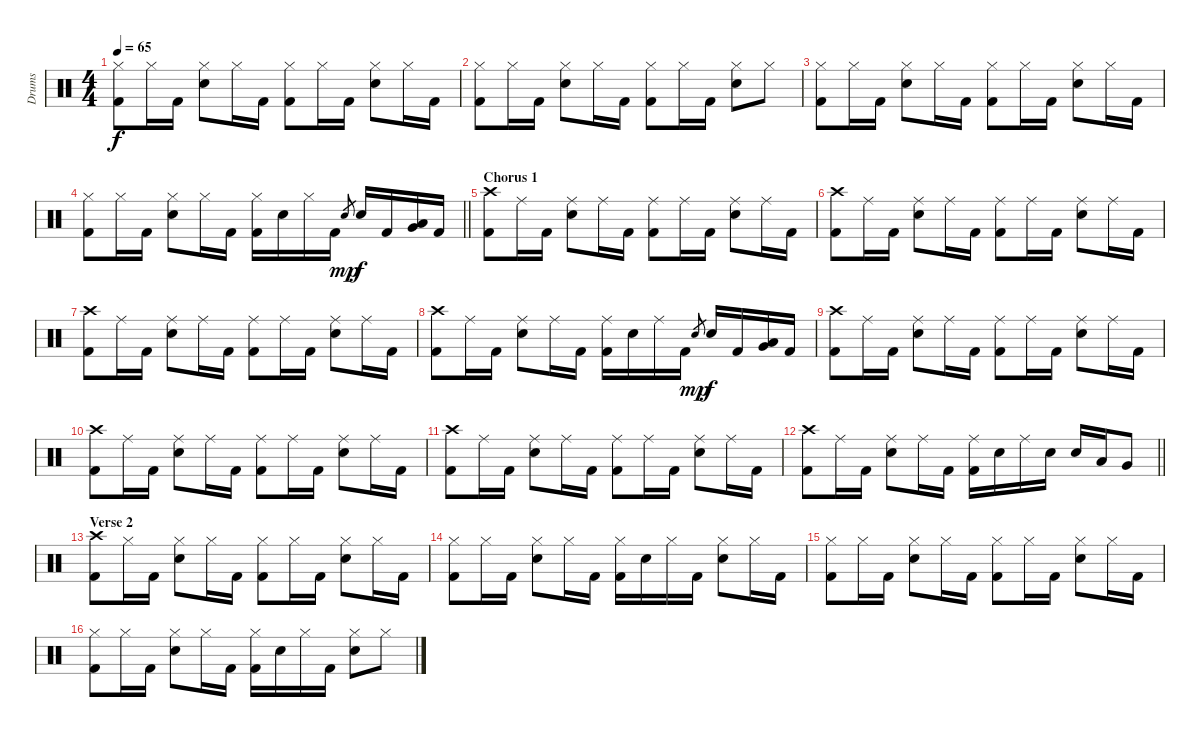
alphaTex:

\track ("Drums" "Drums") {instrument percussion}
\staff {score}
\articulation defaults
\ts (4 4)
\tempo 65
\clef neutral
\ks c
("Hi-Hat (closed)" "Kick (hit) 2").8{dy f} "Hi-Hat (closed)".16 "Kick (hit) 2".16 ("Hi-Hat (closed)" "Electric Snare (hit)").8 "Hi-Hat (closed)".16 "Kick (hit) 2".16 ("Hi-Hat (closed)" "Kick (hit) 2").8 "Hi-Hat (closed)".16 "Kick (hit) 2".16 ("Hi-Hat (closed)" "Electric Snare (hit)").8 "Hi-Hat (closed)".16 "Kick (hit) 2".16 |
("Hi-Hat (closed)" "Kick (hit) 2").8 "Hi-Hat (closed)".16 "Kick (hit) 2".16 ("Hi-Hat (closed)" "Electric Snare (hit)").8 "Hi-Hat (closed)".16 "Kick (hit) 2".16 ("Hi-Hat (closed)" "Kick (hit) 2").8 "Hi-Hat (closed)".16 "Kick (hit) 2".16 ("Hi-Hat (closed)" "Electric Snare (hit)").8 "Hi-Hat (closed)".8 |
("Hi-Hat (closed)" "Kick (hit) 2").8 "Hi-Hat (closed)".16 "Kick (hit) 2".16 ("Hi-Hat (closed)" "Electric Snare (hit)").8 "Hi-Hat (closed)".16 "Kick (hit) 2".16 ("Hi-Hat (closed)" "Kick (hit) 2").8 "Hi-Hat (closed)".16 "Kick (hit) 2".16 ("Hi-Hat (closed)" "Electric Snare (hit)").8 "Hi-Hat (closed)".16 "Kick (hit) 2".16 |
\barLineRight lightlight
("Hi-Hat (closed)" "Kick (hit) 2").8 "Hi-Hat (closed)".16 "Kick (hit) 2".16 ("Hi-Hat (closed)" "Electric Snare (hit)").8 "Hi-Hat (closed)".16 "Kick (hit) 2".16 ("Hi-Hat (closed)" "Kick (hit) 2").16 "Electric Snare (hit)".16 "Hi-Hat (closed)".16 "Kick (hit) 2".16 "Electric Snare (hit)".8{gr dy mp} "Electric Snare (hit)".16{dy f} "Kick (hit) 2".16 ("Very Low Tom (hit)" "Low Tom (hit)").16 "Kick (hit) 2".16 |
\section ("" "Chorus 1")
("Crash high (hit)" "Kick (hit) 2").8 "Ride (middle)".16 "Kick (hit) 2".16 ("Ride (middle)" "Electric Snare (hit)").8 "Ride (middle)".16 "Kick (hit) 2".16 ("Ride (middle)" "Kick (hit) 2").8 "Ride (middle)".16 "Kick (hit) 2".16 ("Ride (middle)" "Electric Snare (hit)").8 "Ride (middle)".16 "Kick (hit) 2".16 |
("Crash high (hit)" "Kick (hit) 2").8 "Ride (middle)".16 "Kick (hit) 2".16 ("Ride (middle)" "Electric Snare (hit)").8 "Ride (middle)".16 "Kick (hit) 2".16 ("Ride (middle)" "Kick (hit) 2").8 "Ride (middle)".16 "Kick (hit) 2".16 ("Ride (middle)" "Electric Snare (hit)").8 "Ride (middle)".16 "Kick (hit) 2".16 |
("Crash high (hit)" "Kick (hit) 2").8 "Ride (middle)".16 "Kick (hit) 2".16 ("Ride (middle)" "Electric Snare (hit)").8 "Ride (middle)".16 "Kick (hit) 2".16 ("Ride (middle)" "Kick (hit) 2").8 "Ride (middle)".16 "Kick (hit) 2".16 ("Ride (middle)" "Electric Snare (hit)").8 "Ride (middle)".16 "Kick (hit) 2".16 |
("Crash high (hit)" "Kick (hit) 2").8 "Ride (middle)".16 "Kick (hit) 2".16 ("Ride (middle)" "Electric Snare (hit)").8 "Ride (middle)".16 "Kick (hit) 2".16 ("Ride (middle)" "Kick (hit) 2").16 "Electric Snare (hit)".16 "Ride (middle)".16 "Kick (hit) 2".16 "Electric Snare (hit)".8{gr dy mp} "Electric Snare (hit)".16{dy f} "Kick (hit) 2".16 ("Very Low Tom (hit)" "Low Tom (hit)").16 "Kick (hit) 2".16 |
("Crash high (hit)" "Kick (hit) 2").8 "Ride (middle)".16 "Kick (hit) 2".16 ("Ride (middle)" "Electric Snare (hit)").8 "Ride (middle)".16 "Kick (hit) 2".16 ("Ride (middle)" "Kick (hit) 2").8 "Ride (middle)".16 "Kick (hit) 2".16 ("Ride (middle)" "Electric Snare (hit)").8 "Ride (middle)".16 "Kick (hit) 2".16 |
("Crash high (hit)" "Kick (hit) 2").8 "Ride (middle)".16 "Kick (hit) 2".16 ("Ride (middle)" "Electric Snare (hit)").8 "Ride (middle)".16 "Kick (hit) 2".16 ("Ride (middle)" "Kick (hit) 2").8 "Ride (middle)".16 "Kick (hit) 2".16 ("Ride (middle)" "Electric Snare (hit)").8 "Ride (middle)".16 "Kick (hit) 2".16 |
("Crash high (hit)" "Kick (hit) 2").8 "Ride (middle)".16 "Kick (hit) 2".16 ("Ride (middle)" "Electric Snare (hit)").8 "Ride (middle)".16 "Kick (hit) 2".16 ("Ride (middle)" "Kick (hit) 2").8 "Ride (middle)".16 "Kick (hit) 2".16 ("Ride (middle)" "Electric Snare (hit)").8 "Ride (middle)".16 "Kick (hit) 2".16 |
\barLineRight lightlight
("Crash high (hit)" "Kick (hit) 2").8 "Ride (middle)".16 "Kick (hit) 2".16 ("Ride (middle)" "Electric Snare (hit)").8 "Ride (middle)".16 "Kick (hit) 2".16 ("Ride (middle)" "Kick (hit) 2").16 "Electric Snare (hit)".16 "Ride (middle)".16 "Electric Snare (hit)".16 "Electric Snare (hit)".16 "Low Tom (hit)".16 "Very Low Tom (hit)".8 |
\section ("" "Verse 2")
("Crash high (hit)" "Kick (hit) 2").8 "Hi-Hat (closed)".16 "Kick (hit) 2".16 ("Hi-Hat (closed)" "Electric Snare (hit)").8 "Hi-Hat (closed)".16 "Kick (hit) 2".16 ("Hi-Hat (closed)" "Kick (hit) 2").8 "Hi-Hat (closed)".16 "Kick (hit) 2".16 ("Hi-Hat (closed)" "Electric Snare (hit)").8 "Hi-Hat (closed)".16 "Kick (hit) 2".16 |
("Hi-Hat (closed)" "Kick (hit) 2").8 "Hi-Hat (closed)".16 "Kick (hit) 2".16 ("Hi-Hat (closed)" "Electric Snare (hit)").8 "Hi-Hat (closed)".16 "Kick (hit) 2".16 ("Hi-Hat (closed)" "Kick (hit) 2").16 "Electric Snare (hit)".16 "Hi-Hat (closed)".16 "Kick (hit) 2".16 ("Hi-Hat (closed)" "Electric Snare (hit)").8 "Hi-Hat (closed)".16 "Kick (hit) 2".16 |
("Hi-Hat (closed)" "Kick (hit) 2").8 "Hi-Hat (closed)".16 "Kick (hit) 2".16 ("Hi-Hat (closed)" "Electric Snare (hit)").8 "Hi-Hat (closed)".16 "Kick (hit) 2".16 ("Hi-Hat (closed)" "Kick (hit) 2").8 "Hi-Hat (closed)".16 "Kick (hit) 2".16 ("Hi-Hat (closed)" "Electric Snare (hit)").8 "Hi-Hat (closed)".16 "Kick (hit) 2".16 |
("Hi-Hat (closed)" "Kick (hit) 2").8 "Hi-Hat (closed)".16 "Kick (hit) 2".16 ("Hi-Hat (closed)" "Electric Snare (hit)").8 "Hi-Hat (closed)".16 "Kick (hit) 2".16 ("Hi-Hat (closed)" "Kick (hit) 2").16 "Electric Snare (hit)".16 "Hi-Hat (closed)".16 "Kick (hit) 2".16 ("Hi-Hat (closed)" "Electric Snare (hit)").8 "Hi-Hat (closed)".8
